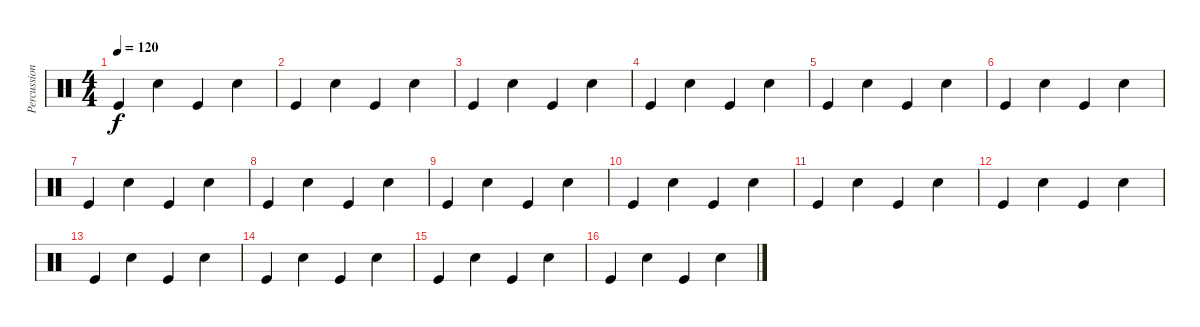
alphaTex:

\track ("Percussion" "Percussion") {instrument percussion}
\staff {score}
\articulation defaults
\ts (4 4)
\tempo 120
\clef neutral
\ks c "Kick (hit)".4{dy f} "Snare (hit) 2".4 "Kick (hit)".4 "Snare (hit) 2".4
|
"Kick (hit)".4 "Snare (hit) 2".4 "Kick (hit)".4 "Snare (hit) 2".4 |
"Kick (hit)".4 "Snare (hit) 2".4 "Kick (hit)".4 "Snare (hit) 2".4 |
"Kick (hit)".4 "Snare (hit) 2".4 "Kick (hit)".4 "Snare (hit) 2".4 |
"Kick (hit)".4 "Snare (hit) 2".4 "Kick (hit)".4 "Snare (hit) 2".4 |
"Kick (hit)".4 "Snare (hit) 2".4 "Kick (hit)".4 "Snare (hit) 2".4 |
"Kick (hit)".4 "Snare (hit) 2".4 "Kick (hit)".4 "Snare (hit) 2".4 |
"Kick (hit)".4 "Snare (hit) 2".4 "Kick (hit)".4 "Snare (hit) 2".4 |
"Kick (hit)".4 "Snare (hit) 2".4 "Kick (hit)".4 "Snare (hit) 2".4 |
"Kick (hit)".4 "Snare (hit) 2".4 "Kick (hit)".4 "Snare (hit) 2".4 |
"Kick (hit)".4 "Snare (hit) 2".4 "Kick (hit)".4 "Snare (hit) 2".4 |
"Kick (hit)".4 "Snare (hit) 2".4 "Kick (hit)".4 "Snare (hit) 2".4 |
"Kick (hit)".4 "Snare (hit) 2".4 "Kick (hit)".4 "Snare (hit) 2".4 |
"Kick (hit)".4 "Snare (hit) 2".4 "Kick (hit)".4 "Snare (hit) 2".4 |
"Kick (hit)".4 "Snare (hit) 2".4 "Kick (hit)".4 "Snare (hit) 2".4 |
"Kick (hit)".4 "Snare (hit) 2".4 "Kick (hit)".4 "Snare (hit) 2".4
